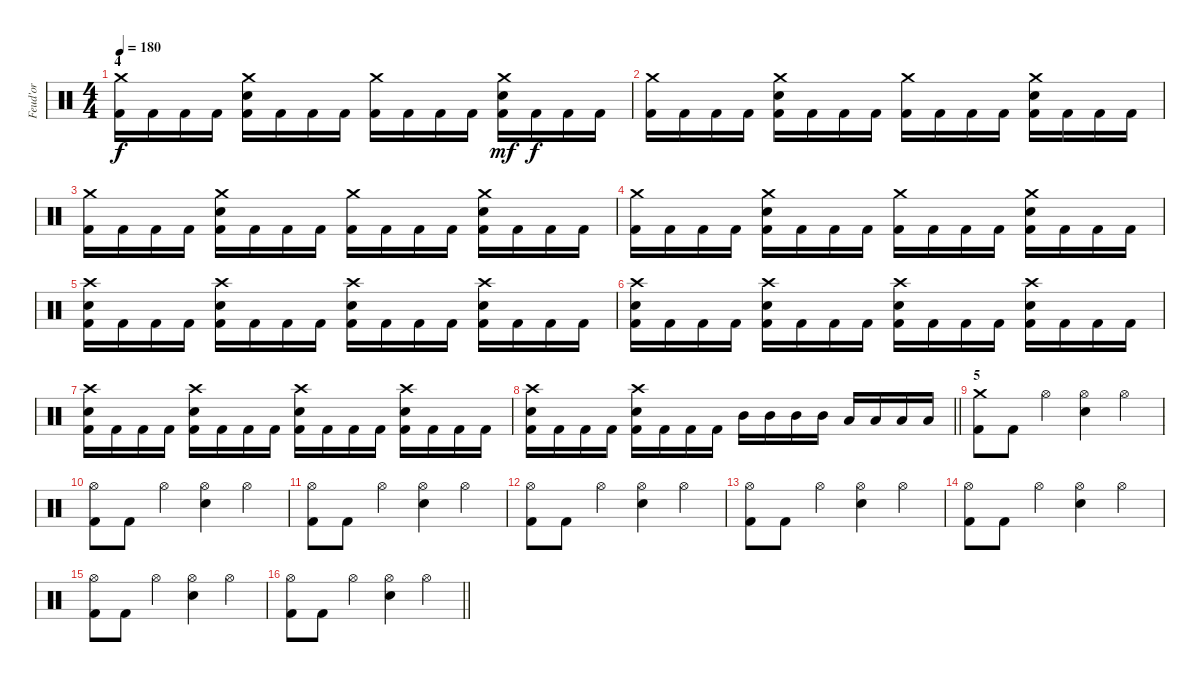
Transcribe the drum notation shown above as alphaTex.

\track ("Feud'or" "Feud'or") {instrument percussion}
\staff {score}
\articulation defaults
\ts (4 4)
\section ("" "4")
\tempo 180
\clef neutral
\ks c
("Crash medium (hit)" "Kick (hit) 2").16{dy f} "Kick (hit) 2".16 "Kick (hit) 2".16 "Kick (hit) 2".16 ("Crash medium (hit)" "Snare (hit) 2" "Kick (hit) 2").16 "Kick (hit) 2".16 "Kick (hit) 2".16 "Kick (hit) 2".16 ("Crash medium (hit)" "Kick (hit) 2").16 "Kick (hit) 2".16 "Kick (hit) 2".16 "Kick (hit) 2".16 ("Crash medium (hit)" "Snare (hit) 2" "Kick (hit) 2").16{dy mf} "Kick (hit) 2".16{dy f} "Kick (hit) 2".16 "Kick (hit) 2".16 |
("Crash medium (hit)" "Kick (hit) 2").16 "Kick (hit) 2".16 "Kick (hit) 2".16 "Kick (hit) 2".16 ("Crash medium (hit)" "Snare (hit) 2" "Kick (hit) 2").16 "Kick (hit) 2".16 "Kick (hit) 2".16 "Kick (hit) 2".16 ("Crash medium (hit)" "Kick (hit) 2").16 "Kick (hit) 2".16 "Kick (hit) 2".16 "Kick (hit) 2".16 ("Crash medium (hit)" "Snare (hit) 2" "Kick (hit) 2").16 "Kick (hit) 2".16 "Kick (hit) 2".16 "Kick (hit) 2".16 |
("Crash medium (hit)" "Kick (hit) 2").16 "Kick (hit) 2".16 "Kick (hit) 2".16 "Kick (hit) 2".16 ("Crash medium (hit)" "Snare (hit) 2" "Kick (hit) 2").16 "Kick (hit) 2".16 "Kick (hit) 2".16 "Kick (hit) 2".16 ("Crash medium (hit)" "Kick (hit) 2").16 "Kick (hit) 2".16 "Kick (hit) 2".16 "Kick (hit) 2".16 ("Crash medium (hit)" "Snare (hit) 2" "Kick (hit) 2").16 "Kick (hit) 2".16 "Kick (hit) 2".16 "Kick (hit) 2".16 |
("Crash medium (hit)" "Kick (hit) 2").16 "Kick (hit) 2".16 "Kick (hit) 2".16 "Kick (hit) 2".16 ("Crash medium (hit)" "Snare (hit) 2" "Kick (hit) 2").16 "Kick (hit) 2".16 "Kick (hit) 2".16 "Kick (hit) 2".16 ("Crash medium (hit)" "Kick (hit) 2").16 "Kick (hit) 2".16 "Kick (hit) 2".16 "Kick (hit) 2".16 ("Crash medium (hit)" "Snare (hit) 2" "Kick (hit) 2").16 "Kick (hit) 2".16 "Kick (hit) 2".16 "Kick (hit) 2".16 |
("Crash high (hit)" "Snare (hit) 2" "Kick (hit) 2").16 "Kick (hit) 2".16 "Kick (hit) 2".16 "Kick (hit) 2".16 ("Crash high (hit)" "Snare (hit) 2" "Kick (hit) 2").16 "Kick (hit) 2".16 "Kick (hit) 2".16 "Kick (hit) 2".16 ("Crash high (hit)" "Snare (hit) 2" "Kick (hit) 2").16 "Kick (hit) 2".16 "Kick (hit) 2".16 "Kick (hit) 2".16 ("Crash high (hit)" "Snare (hit) 2" "Kick (hit) 2").16 "Kick (hit) 2".16 "Kick (hit) 2".16 "Kick (hit) 2".16 |
("Crash high (hit)" "Snare (hit) 2" "Kick (hit) 2").16 "Kick (hit) 2".16 "Kick (hit) 2".16 "Kick (hit) 2".16 ("Crash high (hit)" "Snare (hit) 2" "Kick (hit) 2").16 "Kick (hit) 2".16 "Kick (hit) 2".16 "Kick (hit) 2".16 ("Crash high (hit)" "Snare (hit) 2" "Kick (hit) 2").16 "Kick (hit) 2".16 "Kick (hit) 2".16 "Kick (hit) 2".16 ("Crash high (hit)" "Snare (hit) 2" "Kick (hit) 2").16 "Kick (hit) 2".16 "Kick (hit) 2".16 "Kick (hit) 2".16 |
("Crash high (hit)" "Snare (hit) 2" "Kick (hit) 2").16 "Kick (hit) 2".16 "Kick (hit) 2".16 "Kick (hit) 2".16 ("Crash high (hit)" "Snare (hit) 2" "Kick (hit) 2").16 "Kick (hit) 2".16 "Kick (hit) 2".16 "Kick (hit) 2".16 ("Crash high (hit)" "Snare (hit) 2" "Kick (hit) 2").16 "Kick (hit) 2".16 "Kick (hit) 2".16 "Kick (hit) 2".16 ("Crash high (hit)" "Snare (hit) 2" "Kick (hit) 2").16 "Kick (hit) 2".16 "Kick (hit) 2".16 "Kick (hit) 2".16 |
\barLineRight lightlight
("Crash high (hit)" "Snare (hit) 2" "Kick (hit) 2").16 "Kick (hit) 2".16 "Kick (hit) 2".16 "Kick (hit) 2".16 ("Crash high (hit)" "Snare (hit) 2" "Kick (hit) 2").16 "Kick (hit) 2".16 "Kick (hit) 2".16 "Kick (hit) 2".16 "Mid Tom (hit)".16 "Mid Tom (hit)".16 "Mid Tom (hit)".16 "Mid Tom (hit)".16 "Low Tom (hit)".16 "Low Tom (hit)".16 "Low Tom (hit)".16 "Low Tom (hit)".16 |
\section ("" "5")
("Crash medium (hit)" "Kick (hit) 2").8 "Kick (hit) 2".8 "Hi-Hat (open)".4 ("Hi-Hat (open)" "Snare (hit) 2").4 "Hi-Hat (open)".4 |
("Hi-Hat (open)" "Kick (hit) 2").8 "Kick (hit) 2".8 "Hi-Hat (open)".4 ("Hi-Hat (open)" "Snare (hit) 2").4 "Hi-Hat (open)".4 |
("Hi-Hat (open)" "Kick (hit) 2").8 "Kick (hit) 2".8 "Hi-Hat (open)".4 ("Hi-Hat (open)" "Snare (hit) 2").4 "Hi-Hat (open)".4 |
("Hi-Hat (open)" "Kick (hit) 2").8 "Kick (hit) 2".8 "Hi-Hat (open)".4 ("Hi-Hat (open)" "Snare (hit) 2").4 "Hi-Hat (open)".4 |
("Hi-Hat (open)" "Kick (hit) 2").8 "Kick (hit) 2".8 "Hi-Hat (open)".4 ("Hi-Hat (open)" "Snare (hit) 2").4 "Hi-Hat (open)".4 |
("Hi-Hat (open)" "Kick (hit) 2").8 "Kick (hit) 2".8 "Hi-Hat (open)".4 ("Hi-Hat (open)" "Snare (hit) 2").4 "Hi-Hat (open)".4 |
("Hi-Hat (open)" "Kick (hit) 2").8 "Kick (hit) 2".8 "Hi-Hat (open)".4 ("Hi-Hat (open)" "Snare (hit) 2").4 "Hi-Hat (open)".4 |
\barLineRight lightlight
("Hi-Hat (open)" "Kick (hit) 2").8 "Kick (hit) 2".8 "Hi-Hat (open)".4 ("Hi-Hat (open)" "Snare (hit) 2").4 "Hi-Hat (open)".4
